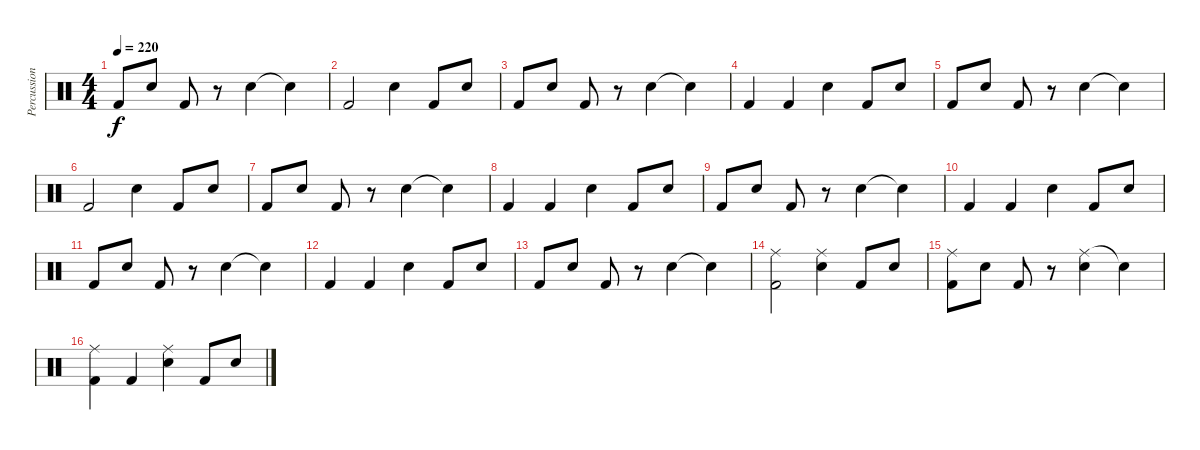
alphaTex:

\track ("Percussions" "Percussion") {instrument percussion}
\staff {score}
\articulation defaults
\ts (4 4)
\tempo 220
\clef neutral
\ks c "Kick (hit) 2".8{dy f} "Electric Snare (hit)".8 "Kick (hit) 2".8
r.8 "Electric Snare (hit)".4 "Electric Snare (hit)"{t}.4 |
"Kick (hit) 2".2 "Electric Snare (hit)".4 "Kick (hit) 2".8 "Electric Snare (hit)".8 |
"Kick (hit) 2".8 "Electric Snare (hit)".8 "Kick (hit) 2".8 r.8 "Electric Snare (hit)".4 "Snare (hit)"{t}.4 |
"Kick (hit) 2".4 "Kick (hit) 2".4 "Electric Snare (hit)".4 "Kick (hit) 2".8 "Electric Snare (hit)".8 |
"Kick (hit) 2".8 "Electric Snare (hit)".8 "Kick (hit) 2".8 r.8 "Electric Snare (hit)".4 "Electric Snare (hit)"{t}.4 |
"Kick (hit) 2".2 "Electric Snare (hit)".4 "Kick (hit) 2".8 "Electric Snare (hit)".8 |
"Kick (hit) 2".8 "Electric Snare (hit)".8 "Kick (hit) 2".8 r.8 "Electric Snare (hit)".4 "Snare (hit)"{t}.4 |
"Kick (hit) 2".4 "Kick (hit) 2".4 "Electric Snare (hit)".4 "Kick (hit) 2".8 "Electric Snare (hit)".8 |
"Kick (hit) 2".8 "Electric Snare (hit)".8 "Kick (hit) 2".8 r.8 "Electric Snare (hit)".4 "Electric Snare (hit)"{t}.4 |
"Kick (hit) 2".4 "Kick (hit) 2".4 "Electric Snare (hit)".4 "Kick (hit) 2".8 "Electric Snare (hit)".8 |
"Kick (hit) 2".8 "Electric Snare (hit)".8 "Kick (hit) 2".8 r.8 "Electric Snare (hit)".4 "Electric Snare (hit)"{t}.4 |
"Kick (hit) 2".4 "Kick (hit) 2".4 "Electric Snare (hit)".4 "Kick (hit) 2".8 "Electric Snare (hit)".8 |
"Kick (hit) 2".8 "Electric Snare (hit)".8 "Kick (hit) 2".8 r.8 "Electric Snare (hit)".4 "Electric Snare (hit)"{t}.4 |
("Ride (middle)" "Kick (hit) 2").2 ("Ride (middle)" "Electric Snare (hit)").4 "Kick (hit) 2".8 "Electric Snare (hit)".8 |
("Ride (middle)" "Kick (hit) 2").8 "Electric Snare (hit)".8 "Kick (hit) 2".8 r.8 ("Ride (middle)" "Electric Snare (hit)").4 "Snare (hit)"{t}.4 |
("Ride (middle)" "Kick (hit) 2").4 "Kick (hit) 2".4 ("Ride (middle)" "Electric Snare (hit)").4 "Kick (hit) 2".8 "Electric Snare (hit)".8
